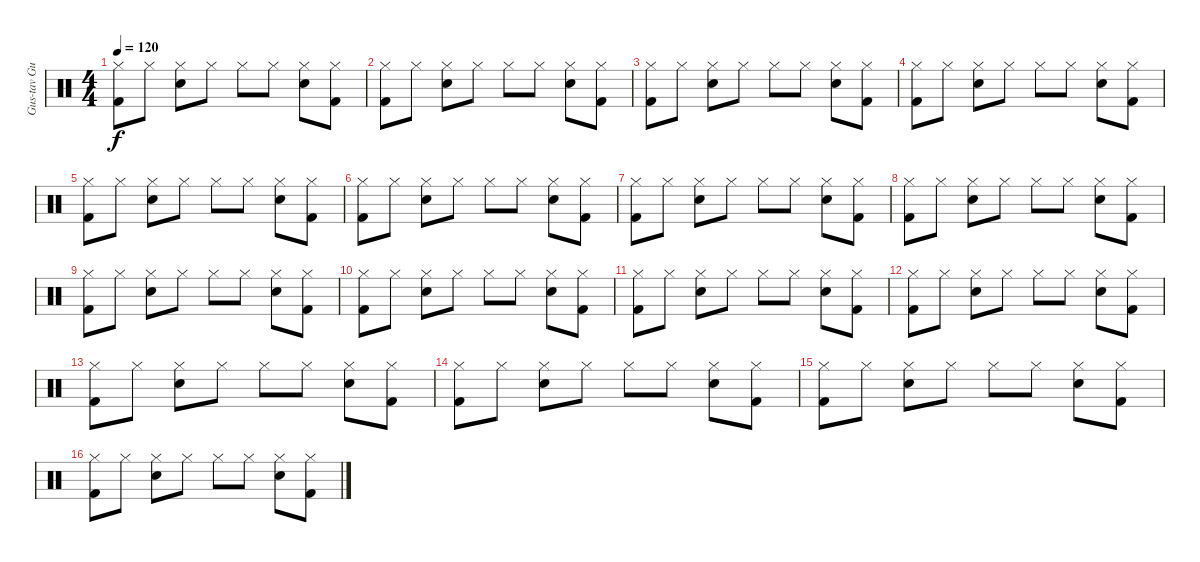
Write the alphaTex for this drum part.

\track ("Gus-tav Gus-Gus-tav" "Gus-tav Gu") {instrument percussion}
\staff {score}
\articulation defaults
\ts (4 4)
\tempo 120
\clef neutral
\ks c
("Kick (hit) 2" "Hi-Hat (closed)").8{dy f} "Hi-Hat (closed)".8 ("Hi-Hat (closed)" "Snare (hit) 2").8 "Hi-Hat (closed)".8 "Hi-Hat (closed)".8 "Hi-Hat (closed)".8 ("Snare (hit) 2" "Hi-Hat (closed)").8 ("Hi-Hat (closed)" "Kick (hit) 2").8 |
("Kick (hit) 2" "Hi-Hat (closed)").8 "Hi-Hat (closed)".8 ("Hi-Hat (closed)" "Snare (hit) 2").8 "Hi-Hat (closed)".8 "Hi-Hat (closed)".8 "Hi-Hat (closed)".8 ("Snare (hit) 2" "Hi-Hat (closed)").8 ("Hi-Hat (closed)" "Kick (hit) 2").8 |
("Kick (hit) 2" "Hi-Hat (closed)").8 "Hi-Hat (closed)".8 ("Hi-Hat (closed)" "Snare (hit) 2").8 "Hi-Hat (closed)".8 "Hi-Hat (closed)".8 "Hi-Hat (closed)".8 ("Snare (hit) 2" "Hi-Hat (closed)").8 ("Hi-Hat (closed)" "Kick (hit) 2").8 |
("Kick (hit) 2" "Hi-Hat (closed)").8 "Hi-Hat (closed)".8 ("Hi-Hat (closed)" "Snare (hit) 2").8 "Hi-Hat (closed)".8 "Hi-Hat (closed)".8 "Hi-Hat (closed)".8 ("Snare (hit) 2" "Hi-Hat (closed)").8 ("Hi-Hat (closed)" "Kick (hit) 2").8 |
("Kick (hit) 2" "Hi-Hat (closed)").8 "Hi-Hat (closed)".8 ("Hi-Hat (closed)" "Snare (hit) 2").8 "Hi-Hat (closed)".8 "Hi-Hat (closed)".8 "Hi-Hat (closed)".8 ("Snare (hit) 2" "Hi-Hat (closed)").8 ("Hi-Hat (closed)" "Kick (hit) 2").8 |
("Kick (hit) 2" "Hi-Hat (closed)").8 "Hi-Hat (closed)".8 ("Hi-Hat (closed)" "Snare (hit) 2").8 "Hi-Hat (closed)".8 "Hi-Hat (closed)".8 "Hi-Hat (closed)".8 ("Snare (hit) 2" "Hi-Hat (closed)").8 ("Hi-Hat (closed)" "Kick (hit) 2").8 |
("Kick (hit) 2" "Hi-Hat (closed)").8 "Hi-Hat (closed)".8 ("Hi-Hat (closed)" "Snare (hit) 2").8 "Hi-Hat (closed)".8 "Hi-Hat (closed)".8 "Hi-Hat (closed)".8 ("Snare (hit) 2" "Hi-Hat (closed)").8 ("Hi-Hat (closed)" "Kick (hit) 2").8 |
("Kick (hit) 2" "Hi-Hat (closed)").8 "Hi-Hat (closed)".8 ("Hi-Hat (closed)" "Snare (hit) 2").8 "Hi-Hat (closed)".8 "Hi-Hat (closed)".8 "Hi-Hat (closed)".8 ("Snare (hit) 2" "Hi-Hat (closed)").8 ("Hi-Hat (closed)" "Kick (hit) 2").8 |
("Kick (hit) 2" "Hi-Hat (closed)").8 "Hi-Hat (closed)".8 ("Hi-Hat (closed)" "Snare (hit) 2").8 "Hi-Hat (closed)".8 "Hi-Hat (closed)".8 "Hi-Hat (closed)".8 ("Snare (hit) 2" "Hi-Hat (closed)").8 ("Hi-Hat (closed)" "Kick (hit) 2").8 |
("Kick (hit) 2" "Hi-Hat (closed)").8 "Hi-Hat (closed)".8 ("Hi-Hat (closed)" "Snare (hit) 2").8 "Hi-Hat (closed)".8 "Hi-Hat (closed)".8 "Hi-Hat (closed)".8 ("Snare (hit) 2" "Hi-Hat (closed)").8 ("Hi-Hat (closed)" "Kick (hit) 2").8 |
("Kick (hit) 2" "Hi-Hat (closed)").8 "Hi-Hat (closed)".8 ("Hi-Hat (closed)" "Snare (hit) 2").8 "Hi-Hat (closed)".8 "Hi-Hat (closed)".8 "Hi-Hat (closed)".8 ("Snare (hit) 2" "Hi-Hat (closed)").8 ("Hi-Hat (closed)" "Kick (hit) 2").8 |
("Kick (hit) 2" "Hi-Hat (closed)").8 "Hi-Hat (closed)".8 ("Hi-Hat (closed)" "Snare (hit) 2").8 "Hi-Hat (closed)".8 "Hi-Hat (closed)".8 "Hi-Hat (closed)".8 ("Snare (hit) 2" "Hi-Hat (closed)").8 ("Hi-Hat (closed)" "Kick (hit) 2").8 |
("Kick (hit) 2" "Hi-Hat (closed)").8 "Hi-Hat (closed)".8 ("Hi-Hat (closed)" "Snare (hit) 2").8 "Hi-Hat (closed)".8 "Hi-Hat (closed)".8 "Hi-Hat (closed)".8 ("Snare (hit) 2" "Hi-Hat (closed)").8 ("Hi-Hat (closed)" "Kick (hit) 2").8 |
("Kick (hit) 2" "Hi-Hat (closed)").8 "Hi-Hat (closed)".8 ("Hi-Hat (closed)" "Snare (hit) 2").8 "Hi-Hat (closed)".8 "Hi-Hat (closed)".8 "Hi-Hat (closed)".8 ("Snare (hit) 2" "Hi-Hat (closed)").8 ("Hi-Hat (closed)" "Kick (hit) 2").8 |
("Kick (hit) 2" "Hi-Hat (closed)").8 "Hi-Hat (closed)".8 ("Hi-Hat (closed)" "Snare (hit) 2").8 "Hi-Hat (closed)".8 "Hi-Hat (closed)".8 "Hi-Hat (closed)".8 ("Snare (hit) 2" "Hi-Hat (closed)").8 ("Hi-Hat (closed)" "Kick (hit) 2").8 |
("Kick (hit) 2" "Hi-Hat (closed)").8 "Hi-Hat (closed)".8 ("Hi-Hat (closed)" "Snare (hit) 2").8 "Hi-Hat (closed)".8 "Hi-Hat (closed)".8 "Hi-Hat (closed)".8 ("Snare (hit) 2" "Hi-Hat (closed)").8 ("Hi-Hat (closed)" "Kick (hit) 2").8
